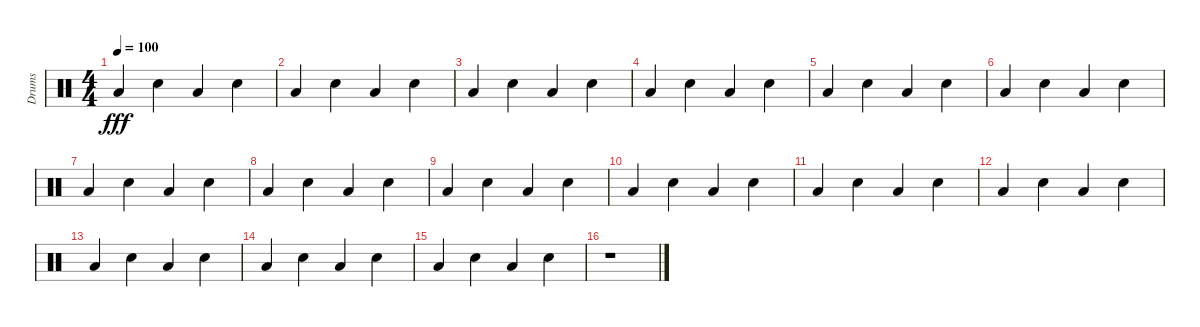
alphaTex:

\track ("Drums" "Drums") {instrument percussion}
\staff {score}
\articulation defaults
\ts (4 4)
\tempo 100
\clef neutral
\ks c "Low Tom (hit)".4{dy fff} "Hand Clap (hit)".4 "Low Tom (hit)".4 "Hand Clap (hit)".4
|
"Low Tom (hit)".4 "Hand Clap (hit)".4 "Low Tom (hit)".4 "Hand Clap (hit)".4 |
"Low Tom (hit)".4 "Hand Clap (hit)".4 "Low Tom (hit)".4 "Hand Clap (hit)".4 |
"Low Tom (hit)".4 "Hand Clap (hit)".4 "Low Tom (hit)".4 "Hand Clap (hit)".4 |
"Low Tom (hit)".4 "Hand Clap (hit)".4 "Low Tom (hit)".4 "Hand Clap (hit)".4 |
"Low Tom (hit)".4 "Hand Clap (hit)".4 "Low Tom (hit)".4 "Hand Clap (hit)".4 |
"Low Tom (hit)".4 "Hand Clap (hit)".4 "Low Tom (hit)".4 "Hand Clap (hit)".4 |
"Low Tom (hit)".4 "Hand Clap (hit)".4 "Low Tom (hit)".4 "Hand Clap (hit)".4 |
"Low Tom (hit)".4 "Hand Clap (hit)".4 "Low Tom (hit)".4 "Hand Clap (hit)".4 |
"Low Tom (hit)".4 "Hand Clap (hit)".4 "Low Tom (hit)".4 "Hand Clap (hit)".4 |
"Low Tom (hit)".4 "Hand Clap (hit)".4 "Low Tom (hit)".4 "Hand Clap (hit)".4 |
"Low Tom (hit)".4 "Hand Clap (hit)".4 "Low Tom (hit)".4 "Hand Clap (hit)".4 |
"Low Tom (hit)".4 "Hand Clap (hit)".4 "Low Tom (hit)".4 "Hand Clap (hit)".4 |
"Low Tom (hit)".4 "Hand Clap (hit)".4 "Low Tom (hit)".4 "Hand Clap (hit)".4 |
"Low Tom (hit)".4 "Hand Clap (hit)".4 "Low Tom (hit)".4 "Hand Clap (hit)".4 |
r.1
